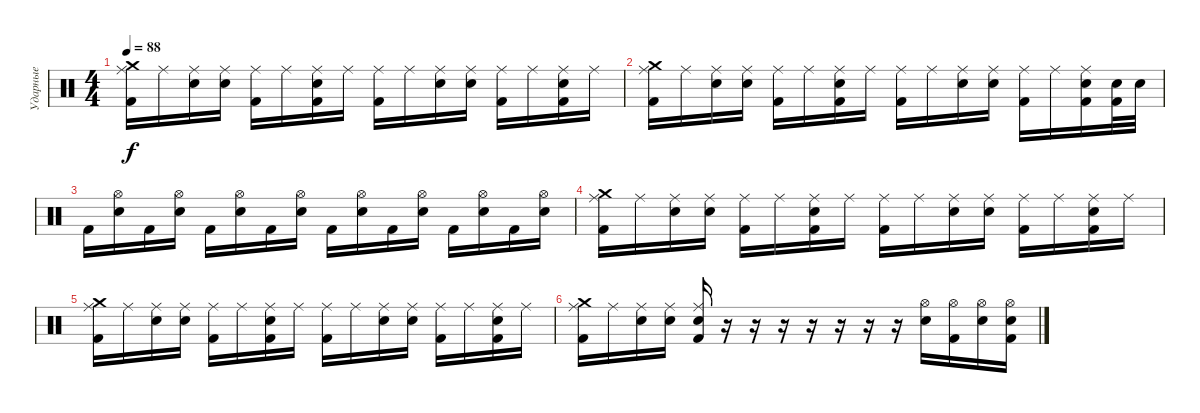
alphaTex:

\track ("Ударные" "Ударные") {instrument percussion}
\staff {score}
\articulation defaults
\ts (4 4)
\tempo 88
\clef neutral
\ks c
("Kick (hit) 2" "Ride (middle)" "Crash medium (hit)").16{dy f} "Ride (middle)".16 ("Ride (middle)" "Electric Snare (hit)").16 ("Ride (middle)" "Electric Snare (hit)").16 ("Kick (hit) 2" "Ride (middle)").16 "Ride (middle)".16 ("Kick (hit) 2" "Ride (middle)" "Electric Snare (hit)").16 "Ride (middle)".16 ("Kick (hit) 2" "Ride (middle)").16 "Ride (middle)".16 ("Ride (middle)" "Electric Snare (hit)").16 ("Ride (middle)" "Electric Snare (hit)").16 ("Kick (hit) 2" "Ride (middle)").16 "Ride (middle)".16 ("Kick (hit) 2" "Ride (middle)" "Electric Snare (hit)").16 "Ride (middle)".16 |
("Kick (hit) 2" "Ride (middle)" "Crash medium (hit)").16 "Ride (middle)".16 ("Ride (middle)" "Electric Snare (hit)").16 ("Ride (middle)" "Electric Snare (hit)").16 ("Kick (hit) 2" "Ride (middle)").16 "Ride (middle)".16 ("Kick (hit) 2" "Ride (middle)" "Electric Snare (hit)").16 "Ride (middle)".16 ("Kick (hit) 2" "Ride (middle)").16 "Ride (middle)".16 ("Ride (middle)" "Electric Snare (hit)").16 ("Ride (middle)" "Electric Snare (hit)").16 ("Kick (hit) 2" "Ride (middle)").16 "Ride (middle)".16 ("Kick (hit) 2" "Ride (middle)" "Electric Snare (hit)").16 ("Kick (hit) 2" "Electric Snare (hit)").32 "Electric Snare (hit)".32 |
"Kick (hit) 2".16 ("Electric Snare (hit)" "Hi-Hat (open)").16 "Kick (hit) 2".16 ("Electric Snare (hit)" "Hi-Hat (open)").16 "Kick (hit) 2".16 ("Electric Snare (hit)" "Hi-Hat (open)").16 "Kick (hit) 2".16 ("Electric Snare (hit)" "Hi-Hat (open)").16 "Kick (hit) 2".16 ("Electric Snare (hit)" "Hi-Hat (open)").16 "Kick (hit) 2".16 ("Electric Snare (hit)" "Hi-Hat (open)").16 "Kick (hit) 2".16 ("Electric Snare (hit)" "Hi-Hat (open)").16 "Kick (hit) 2".16 ("Electric Snare (hit)" "Hi-Hat (open)").16 |
("Kick (hit) 2" "Ride (middle)" "Crash medium (hit)").16 "Ride (middle)".16 ("Ride (middle)" "Electric Snare (hit)").16 ("Ride (middle)" "Electric Snare (hit)").16 ("Kick (hit) 2" "Ride (middle)").16 "Ride (middle)".16 ("Kick (hit) 2" "Ride (middle)" "Electric Snare (hit)").16 "Ride (middle)".16 ("Kick (hit) 2" "Ride (middle)").16 "Ride (middle)".16 ("Ride (middle)" "Electric Snare (hit)").16 ("Ride (middle)" "Electric Snare (hit)").16 ("Kick (hit) 2" "Ride (middle)").16 "Ride (middle)".16 ("Kick (hit) 2" "Ride (middle)" "Electric Snare (hit)").16 "Ride (middle)".16 |
("Kick (hit) 2" "Ride (middle)" "Crash medium (hit)").16 "Ride (middle)".16 ("Ride (middle)" "Electric Snare (hit)").16 ("Ride (middle)" "Electric Snare (hit)").16 ("Kick (hit) 2" "Ride (middle)").16 "Ride (middle)".16 ("Kick (hit) 2" "Ride (middle)" "Electric Snare (hit)").16 "Ride (middle)".16 ("Kick (hit) 2" "Ride (middle)").16 "Ride (middle)".16 ("Ride (middle)" "Electric Snare (hit)").16 ("Ride (middle)" "Electric Snare (hit)").16 ("Kick (hit) 2" "Ride (middle)").16 "Ride (middle)".16 ("Kick (hit) 2" "Ride (middle)" "Electric Snare (hit)").16 "Ride (middle)".16 |
("Kick (hit) 2" "Ride (middle)" "Crash medium (hit)").16 "Ride (middle)".16 ("Ride (middle)" "Electric Snare (hit)").16 ("Ride (middle)" "Electric Snare (hit)").16 ("Kick (hit) 2" "Electric Snare (hit)" "Ride (middle)").16 r.16 r.16 r.16 r.16 r.16 r.16 r.16 ("Electric Snare (hit)" "Hi-Hat (open)").16 ("Kick (hit) 2" "Hi-Hat (open)").16 ("Electric Snare (hit)" "Hi-Hat (open)").16 ("Kick (hit) 2" "Electric Snare (hit)" "Hi-Hat (open)").16
